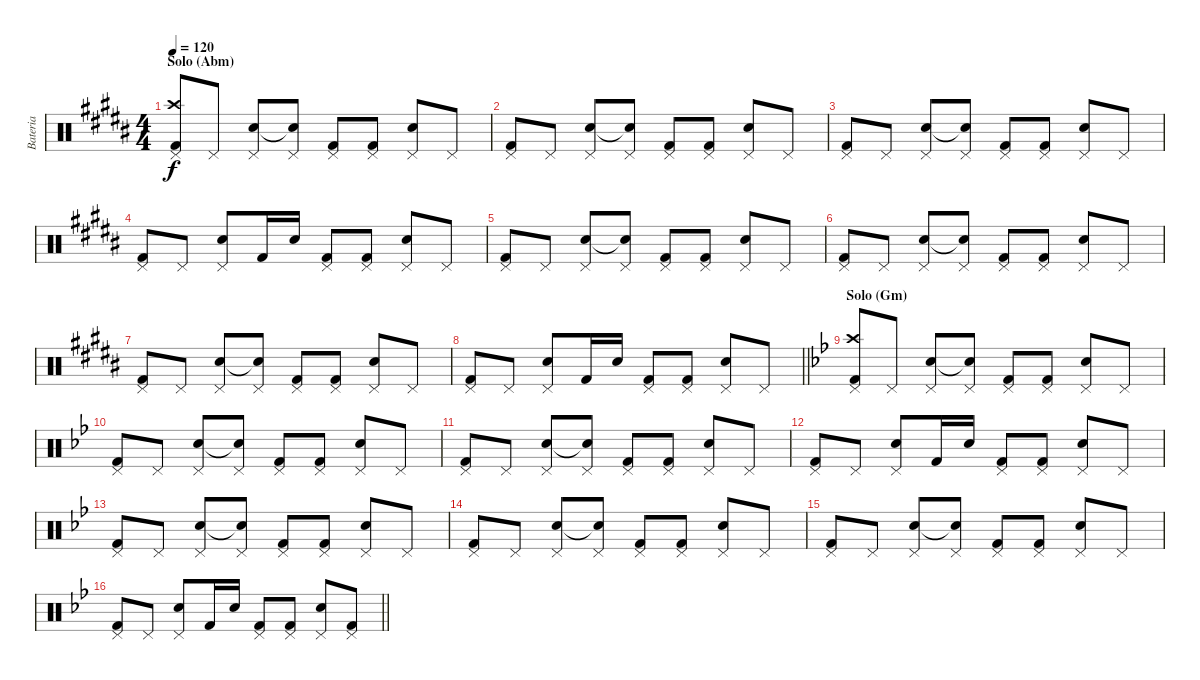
\track ("Bateria" "Bateria") {instrument percussion}
\staff {score}
\articulation defaults
\ts (4 4)
\section ("" "Solo (Abm)")
\tempo 120
\clef neutral
\ks b
("Pedal Hi-Hat (hit)" "Crash high (hit)" "Kick (hit) 2").8{dy f} "Pedal Hi-Hat (hit)".8 ("Pedal Hi-Hat (hit)" "Snare (hit) 2").8 ("Pedal Hi-Hat (hit)" "Snare (hit)"{t}).8 ("Pedal Hi-Hat (hit)" "Kick (hit) 2").8 ("Pedal Hi-Hat (hit)" "Kick (hit) 2").8 ("Pedal Hi-Hat (hit)" "Snare (hit) 2").8 "Pedal Hi-Hat (hit)".8 |
("Pedal Hi-Hat (hit)" "Kick (hit) 2").8 "Pedal Hi-Hat (hit)".8 ("Pedal Hi-Hat (hit)" "Snare (hit) 2").8 ("Pedal Hi-Hat (hit)" "Snare (hit)"{t}).8 ("Pedal Hi-Hat (hit)" "Kick (hit) 2").8 ("Pedal Hi-Hat (hit)" "Kick (hit) 2").8 ("Pedal Hi-Hat (hit)" "Snare (hit) 2").8 "Pedal Hi-Hat (hit)".8 |
("Pedal Hi-Hat (hit)" "Kick (hit) 2").8 "Pedal Hi-Hat (hit)".8 ("Pedal Hi-Hat (hit)" "Snare (hit) 2").8 ("Pedal Hi-Hat (hit)" "Snare (hit)"{t}).8 ("Pedal Hi-Hat (hit)" "Kick (hit) 2").8 ("Pedal Hi-Hat (hit)" "Kick (hit) 2").8 ("Pedal Hi-Hat (hit)" "Snare (hit) 2").8 "Pedal Hi-Hat (hit)".8 |
("Pedal Hi-Hat (hit)" "Kick (hit) 2").8 "Pedal Hi-Hat (hit)".8 ("Pedal Hi-Hat (hit)" "Snare (hit) 2").8 "Kick (hit) 2".16 "Snare (hit) 2".16 ("Pedal Hi-Hat (hit)" "Kick (hit) 2").8 ("Pedal Hi-Hat (hit)" "Kick (hit) 2").8 ("Pedal Hi-Hat (hit)" "Snare (hit) 2").8 "Pedal Hi-Hat (hit)".8 |
("Pedal Hi-Hat (hit)" "Kick (hit) 2").8 "Pedal Hi-Hat (hit)".8 ("Pedal Hi-Hat (hit)" "Snare (hit) 2").8 ("Pedal Hi-Hat (hit)" "Snare (hit)"{t}).8 ("Pedal Hi-Hat (hit)" "Kick (hit) 2").8 ("Pedal Hi-Hat (hit)" "Kick (hit) 2").8 ("Pedal Hi-Hat (hit)" "Snare (hit) 2").8 "Pedal Hi-Hat (hit)".8 |
("Pedal Hi-Hat (hit)" "Kick (hit) 2").8 "Pedal Hi-Hat (hit)".8 ("Pedal Hi-Hat (hit)" "Snare (hit) 2").8 ("Pedal Hi-Hat (hit)" "Snare (hit)"{t}).8 ("Pedal Hi-Hat (hit)" "Kick (hit) 2").8 ("Pedal Hi-Hat (hit)" "Kick (hit) 2").8 ("Pedal Hi-Hat (hit)" "Snare (hit) 2").8 "Pedal Hi-Hat (hit)".8 |
("Pedal Hi-Hat (hit)" "Kick (hit) 2").8 "Pedal Hi-Hat (hit)".8 ("Pedal Hi-Hat (hit)" "Snare (hit) 2").8 ("Pedal Hi-Hat (hit)" "Snare (hit)"{t}).8 ("Pedal Hi-Hat (hit)" "Kick (hit) 2").8 ("Pedal Hi-Hat (hit)" "Kick (hit) 2").8 ("Pedal Hi-Hat (hit)" "Snare (hit) 2").8 "Pedal Hi-Hat (hit)".8 |
\barLineRight lightlight
("Pedal Hi-Hat (hit)" "Kick (hit) 2").8 "Pedal Hi-Hat (hit)".8 ("Pedal Hi-Hat (hit)" "Snare (hit) 2").8 "Kick (hit) 2".16 "Snare (hit) 2".16 ("Pedal Hi-Hat (hit)" "Kick (hit) 2").8 ("Pedal Hi-Hat (hit)" "Kick (hit) 2").8 ("Pedal Hi-Hat (hit)" "Snare (hit) 2").8 "Pedal Hi-Hat (hit)".8 |
\section ("" "Solo (Gm)")
\ks bb
("Pedal Hi-Hat (hit)" "Crash high (hit)" "Kick (hit) 2").8 "Pedal Hi-Hat (hit)".8 ("Pedal Hi-Hat (hit)" "Snare (hit) 2").8 ("Pedal Hi-Hat (hit)" "Snare (hit)"{t}).8 ("Pedal Hi-Hat (hit)" "Kick (hit) 2").8 ("Pedal Hi-Hat (hit)" "Kick (hit) 2").8 ("Pedal Hi-Hat (hit)" "Snare (hit) 2").8 "Pedal Hi-Hat (hit)".8 |
("Pedal Hi-Hat (hit)" "Kick (hit) 2").8 "Pedal Hi-Hat (hit)".8 ("Pedal Hi-Hat (hit)" "Snare (hit) 2").8 ("Pedal Hi-Hat (hit)" "Snare (hit)"{t}).8 ("Pedal Hi-Hat (hit)" "Kick (hit) 2").8 ("Pedal Hi-Hat (hit)" "Kick (hit) 2").8 ("Pedal Hi-Hat (hit)" "Snare (hit) 2").8 "Pedal Hi-Hat (hit)".8 |
("Pedal Hi-Hat (hit)" "Kick (hit) 2").8 "Pedal Hi-Hat (hit)".8 ("Pedal Hi-Hat (hit)" "Snare (hit) 2").8 ("Pedal Hi-Hat (hit)" "Snare (hit)"{t}).8 ("Pedal Hi-Hat (hit)" "Kick (hit) 2").8 ("Pedal Hi-Hat (hit)" "Kick (hit) 2").8 ("Pedal Hi-Hat (hit)" "Snare (hit) 2").8 "Pedal Hi-Hat (hit)".8 |
("Pedal Hi-Hat (hit)" "Kick (hit) 2").8 "Pedal Hi-Hat (hit)".8 ("Pedal Hi-Hat (hit)" "Snare (hit) 2").8 "Kick (hit) 2".16 "Snare (hit) 2".16 ("Pedal Hi-Hat (hit)" "Kick (hit) 2").8 ("Pedal Hi-Hat (hit)" "Kick (hit) 2").8 ("Pedal Hi-Hat (hit)" "Snare (hit) 2").8 "Pedal Hi-Hat (hit)".8 |
("Pedal Hi-Hat (hit)" "Kick (hit) 2").8 "Pedal Hi-Hat (hit)".8 ("Pedal Hi-Hat (hit)" "Snare (hit) 2").8 ("Pedal Hi-Hat (hit)" "Snare (hit)"{t}).8 ("Pedal Hi-Hat (hit)" "Kick (hit) 2").8 ("Pedal Hi-Hat (hit)" "Kick (hit) 2").8 ("Pedal Hi-Hat (hit)" "Snare (hit) 2").8 "Pedal Hi-Hat (hit)".8 |
("Pedal Hi-Hat (hit)" "Kick (hit) 2").8 "Pedal Hi-Hat (hit)".8 ("Pedal Hi-Hat (hit)" "Snare (hit) 2").8 ("Pedal Hi-Hat (hit)" "Snare (hit)"{t}).8 ("Pedal Hi-Hat (hit)" "Kick (hit) 2").8 ("Pedal Hi-Hat (hit)" "Kick (hit) 2").8 ("Pedal Hi-Hat (hit)" "Snare (hit) 2").8 "Pedal Hi-Hat (hit)".8 |
("Pedal Hi-Hat (hit)" "Kick (hit) 2").8 "Pedal Hi-Hat (hit)".8 ("Pedal Hi-Hat (hit)" "Snare (hit) 2").8 ("Pedal Hi-Hat (hit)" "Snare (hit)"{t}).8 ("Pedal Hi-Hat (hit)" "Kick (hit) 2").8 ("Pedal Hi-Hat (hit)" "Kick (hit) 2").8 ("Pedal Hi-Hat (hit)" "Snare (hit) 2").8 "Pedal Hi-Hat (hit)".8 |
\barLineRight lightlight
("Pedal Hi-Hat (hit)" "Kick (hit) 2").8 "Pedal Hi-Hat (hit)".8 ("Pedal Hi-Hat (hit)" "Snare (hit) 2").8 "Kick (hit) 2".16 "Snare (hit) 2".16 ("Pedal Hi-Hat (hit)" "Kick (hit) 2").8 ("Pedal Hi-Hat (hit)" "Kick (hit) 2").8 ("Pedal Hi-Hat (hit)" "Snare (hit) 2").8 ("Pedal Hi-Hat (hit)" "Kick (hit) 2").8
